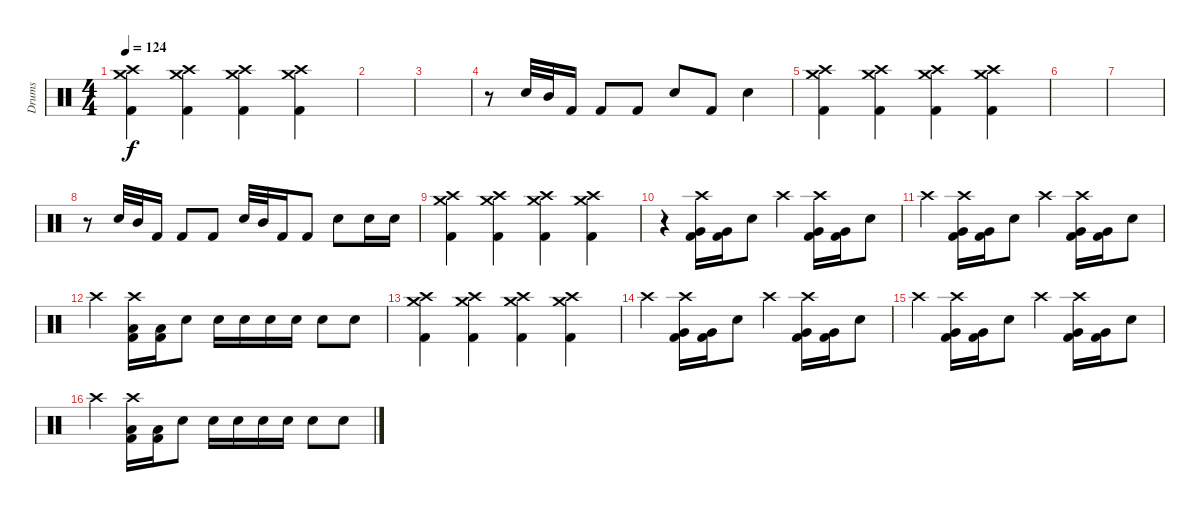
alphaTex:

\track ("Drums" "Drums") {instrument percussion}
\staff {score}
\articulation defaults
\ts (4 4)
\tempo 124
\clef neutral
\ks c
("Crash medium (hit)" "Crash high (hit)" "Kick (hit) 2").4{dy f} ("Crash medium (hit)" "Crash high (hit)" "Kick (hit) 2").4 ("Crash medium (hit)" "Crash high (hit)" "Kick (hit) 2").4 ("Crash medium (hit)" "Crash high (hit)" "Kick (hit) 2").4 |
|
|
r.8 "Electric Snare (hit)".32 "Mid Tom (hit)".32 "Kick (hit) 2".16 "Kick (hit) 2".8 "Kick (hit) 2".8 "Electric Snare (hit)".8 "Kick (hit) 2".8 "Electric Snare (hit)".4 |
("Crash medium (hit)" "Crash high (hit)" "Kick (hit) 2").4 ("Crash medium (hit)" "Crash high (hit)" "Kick (hit) 2").4 ("Crash medium (hit)" "Crash high (hit)" "Kick (hit) 2").4 ("Crash medium (hit)" "Crash high (hit)" "Kick (hit) 2").4 |
|
|
r.8 "Electric Snare (hit)".32 "Mid Tom (hit)".32 "Kick (hit) 2".16 "Kick (hit) 2".8 "Kick (hit) 2".8 "Electric Snare (hit)".32 "Mid Tom (hit)".32 "Kick (hit) 2".16 "Kick (hit) 2".8 "Electric Snare (hit)".8 "Electric Snare (hit)".16 "Electric Snare (hit)".16 |
("Crash medium (hit)" "Crash high (hit)" "Kick (hit) 2").4 ("Crash medium (hit)" "Crash high (hit)" "Kick (hit) 2").4 ("Crash medium (hit)" "Crash high (hit)" "Kick (hit) 2").4 ("Crash medium (hit)" "Crash high (hit)" "Kick (hit) 2").4 |
r.4 ("Kick (hit) 2" "Very Low Tom (hit)" "Crash high (hit)").16 ("Very Low Tom (hit)" "Kick (hit) 2").16 "Electric Snare (hit)".8 "Crash high (hit)".4 ("Kick (hit) 2" "Very Low Tom (hit)" "Crash high (hit)").16 ("Kick (hit) 2" "Very Low Tom (hit)").16 "Electric Snare (hit)".8 |
"Crash high (hit)".4 ("Kick (hit) 2" "Very Low Tom (hit)" "Crash high (hit)").16 ("Very Low Tom (hit)" "Kick (hit) 2").16 "Electric Snare (hit)".8 "Crash high (hit)".4 ("Kick (hit) 2" "Very Low Tom (hit)" "Crash high (hit)").16 ("Kick (hit) 2" "Very Low Tom (hit)").16 "Electric Snare (hit)".8 |
"Crash high (hit)".4 ("Kick (hit) 2" "Low Floor Tom (hit)" "Crash high (hit)").16 ("Low Floor Tom (hit)" "Kick (hit) 2").16 "Electric Snare (hit)".8 "Electric Snare (hit)".16 "Electric Snare (hit)".16 "Electric Snare (hit)".16 "Electric Snare (hit)".16 "Electric Snare (hit)".8 "Electric Snare (hit)".8 |
("Crash medium (hit)" "Crash high (hit)" "Kick (hit) 2").4 ("Crash medium (hit)" "Crash high (hit)" "Kick (hit) 2").4 ("Crash medium (hit)" "Crash high (hit)" "Kick (hit) 2").4 ("Crash medium (hit)" "Crash high (hit)" "Kick (hit) 2").4 |
"Crash high (hit)".4 ("Kick (hit) 2" "Very Low Tom (hit)" "Crash high (hit)").16 ("Very Low Tom (hit)" "Kick (hit) 2").16 "Electric Snare (hit)".8 "Crash high (hit)".4 ("Kick (hit) 2" "Very Low Tom (hit)" "Crash high (hit)").16 ("Kick (hit) 2" "Very Low Tom (hit)").16 "Electric Snare (hit)".8 |
"Crash high (hit)".4 ("Kick (hit) 2" "Very Low Tom (hit)" "Crash high (hit)").16 ("Very Low Tom (hit)" "Kick (hit) 2").16 "Electric Snare (hit)".8 "Crash high (hit)".4 ("Kick (hit) 2" "Very Low Tom (hit)" "Crash high (hit)").16 ("Kick (hit) 2" "Very Low Tom (hit)").16 "Electric Snare (hit)".8 |
"Crash high (hit)".4 ("Kick (hit) 2" "Low Floor Tom (hit)" "Crash high (hit)").16 ("Low Floor Tom (hit)" "Kick (hit) 2").16 "Electric Snare (hit)".8 "Electric Snare (hit)".16 "Electric Snare (hit)".16 "Electric Snare (hit)".16 "Electric Snare (hit)".16 "Electric Snare (hit)".8 "Electric Snare (hit)".8
